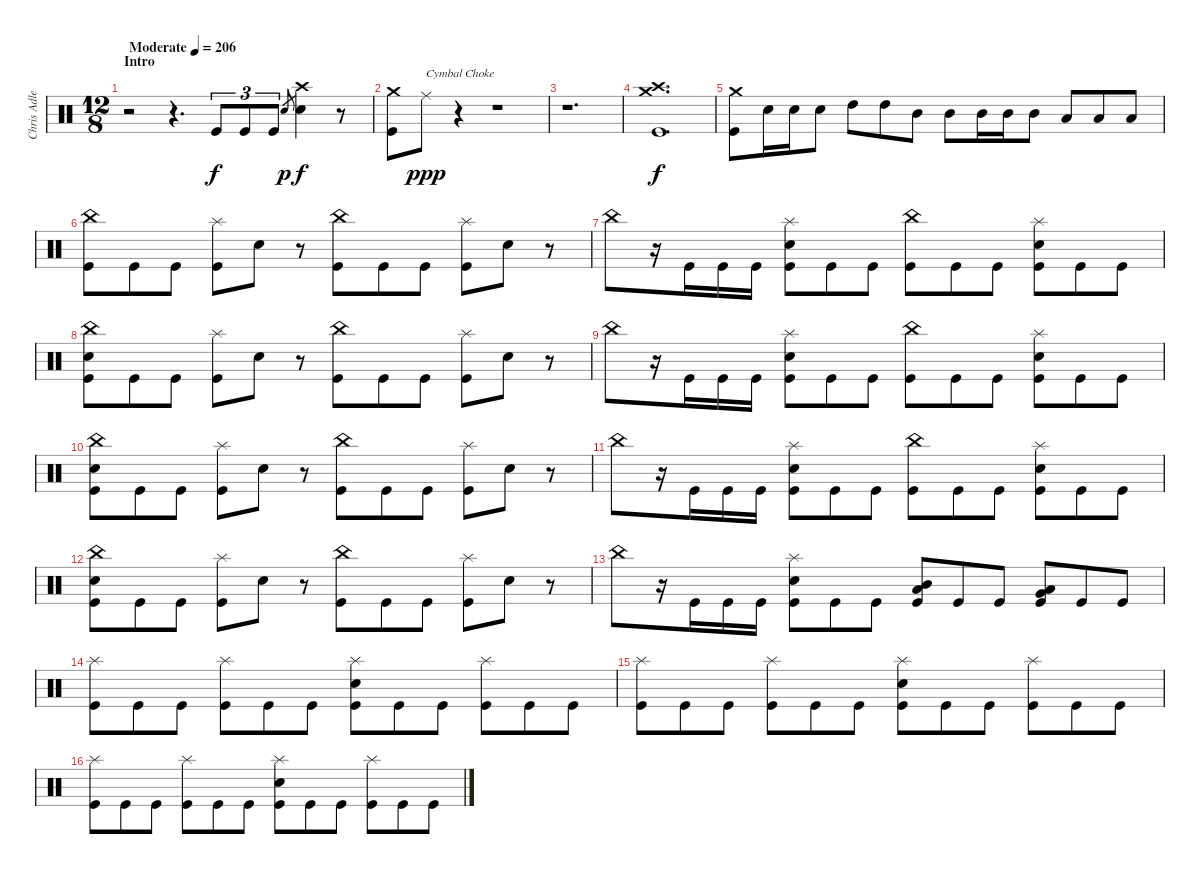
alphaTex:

\track ("Chris Adler" "Chris Adle") {instrument percussion}
\staff {score}
\articulation defaults
\ts (12 8)
\section ("" "Intro")
\tempo (206 "Moderate")
\clef neutral
\ks c
r.2{dy f} r.4{d} "Kick (hit)".8{tu (3 2)} "Kick (hit)".8{tu (3 2)} "Kick (hit)".8{tu (3 2)} "Snare (hit)".8{gr dy p} ("Snare (hit) 2" "Crash high (hit)").4{dy f} r.8 |
("Crash medium (hit)" "Kick (hit)").8 "Ride (middle)".8{txt "Cymbal Choke" dy ppp} r.4 r.1 |
r.1{d} |
("Crash medium (hit)" "Crash high (hit)" "Kick (hit)").1{d dy f} |
("Kick (hit)" "Crash medium (hit)").8 "Snare (hit) 2".16 "Snare (hit) 2".16 "Snare (hit) 2".8 "High Tom (hit)".8 "High Tom (hit)".8 "Mid Tom (hit)".8 "Mid Tom (hit)".8 "Mid Tom (hit)".16 "Mid Tom (hit)".16 "Mid Tom (hit)".8 "Low Tom (hit)".8 "Low Floor Tom (hit)".8 "Low Floor Tom (hit)".8 |
("Kick (hit)" "China (hit)").8 "Kick (hit)".8 "Kick (hit)".8 ("Kick (hit)" "Splash (hit)").8 "Snare (hit) 2".8 r.8 ("Kick (hit)" "China (hit)").8 "Kick (hit)".8 "Kick (hit)".8 ("Kick (hit)" "Splash (hit)").8 "Snare (hit) 2".8 r.8 |
"China (hit)".8 r.16 "Kick (hit)".16 "Kick (hit)".16 "Kick (hit)".16 ("Snare (hit) 2" "Kick (hit)" "Splash (hit)").8 "Kick (hit)".8 "Kick (hit)".8 ("Kick (hit)" "China (hit)").8 "Kick (hit)".8 "Kick (hit)".8 ("Snare (hit) 2" "Kick (hit)" "Splash (hit)").8 "Kick (hit)".8 "Kick (hit)".8 |
("Kick (hit)" "China (hit)" "Snare (hit) 2").8 "Kick (hit)".8 "Kick (hit)".8 ("Kick (hit)" "Splash (hit)").8 "Snare (hit) 2".8 r.8 ("Kick (hit)" "China (hit)").8 "Kick (hit)".8 "Kick (hit)".8 ("Kick (hit)" "Splash (hit)").8 "Snare (hit) 2".8 r.8 |
"China (hit)".8 r.16 "Kick (hit)".16 "Kick (hit)".16 "Kick (hit)".16 ("Snare (hit) 2" "Kick (hit)" "Splash (hit)").8 "Kick (hit)".8 "Kick (hit)".8 ("Kick (hit)" "China (hit)").8 "Kick (hit)".8 "Kick (hit)".8 ("Snare (hit) 2" "Kick (hit)" "Splash (hit)").8 "Kick (hit)".8 "Kick (hit)".8 |
("Kick (hit)" "China (hit)" "Snare (hit) 2").8 "Kick (hit)".8 "Kick (hit)".8 ("Kick (hit)" "Splash (hit)").8 "Snare (hit) 2".8 r.8 ("Kick (hit)" "China (hit)").8 "Kick (hit)".8 "Kick (hit)".8 ("Kick (hit)" "Splash (hit)").8 "Snare (hit) 2".8 r.8 |
"China (hit)".8 r.16 "Kick (hit)".16 "Kick (hit)".16 "Kick (hit)".16 ("Snare (hit) 2" "Kick (hit)" "Splash (hit)").8 "Kick (hit)".8 "Kick (hit)".8 ("Kick (hit)" "China (hit)").8 "Kick (hit)".8 "Kick (hit)".8 ("Snare (hit) 2" "Kick (hit)" "Splash (hit)").8 "Kick (hit)".8 "Kick (hit)".8 |
("Kick (hit)" "China (hit)" "Snare (hit) 2").8 "Kick (hit)".8 "Kick (hit)".8 ("Kick (hit)" "Splash (hit)").8 "Snare (hit) 2".8 r.8 ("Kick (hit)" "China (hit)").8 "Kick (hit)".8 "Kick (hit)".8 ("Kick (hit)" "Splash (hit)").8 "Snare (hit) 2".8 r.8 |
"China (hit)".8 r.16 "Kick (hit)".16 "Kick (hit)".16 "Kick (hit)".16 ("Snare (hit) 2" "Kick (hit)" "Splash (hit)").8 "Kick (hit)".8 "Kick (hit)".8 ("Kick (hit)" "Mid Tom (hit)" "Low Tom (hit)").8 "Kick (hit)".8 "Kick (hit)".8 ("Kick (hit)" "Low Tom (hit)" "Very Low Tom (hit)").8 "Kick (hit)".8 "Kick (hit)".8 |
("Kick (hit)" "Splash (hit)").8 "Kick (hit)".8 "Kick (hit)".8 ("Kick (hit)" "Splash (hit)").8 "Kick (hit)".8 "Kick (hit)".8 ("Snare (hit) 2" "Kick (hit)" "Splash (hit)").8 "Kick (hit)".8 "Kick (hit)".8 ("Kick (hit)" "Splash (hit)").8 "Kick (hit)".8 "Kick (hit)".8 |
("Kick (hit)" "Splash (hit)").8 "Kick (hit)".8 "Kick (hit)".8 ("Kick (hit)" "Splash (hit)").8 "Kick (hit)".8 "Kick (hit)".8 ("Snare (hit) 2" "Kick (hit)" "Splash (hit)").8 "Kick (hit)".8 "Kick (hit)".8 ("Kick (hit)" "Splash (hit)").8 "Kick (hit)".8 "Kick (hit)".8 |
("Kick (hit)" "Splash (hit)").8 "Kick (hit)".8 "Kick (hit)".8 ("Kick (hit)" "Splash (hit)").8 "Kick (hit)".8 "Kick (hit)".8 ("Snare (hit) 2" "Kick (hit)" "Splash (hit)").8 "Kick (hit)".8 "Kick (hit)".8 ("Kick (hit)" "Splash (hit)").8 "Kick (hit)".8 "Kick (hit)".8
